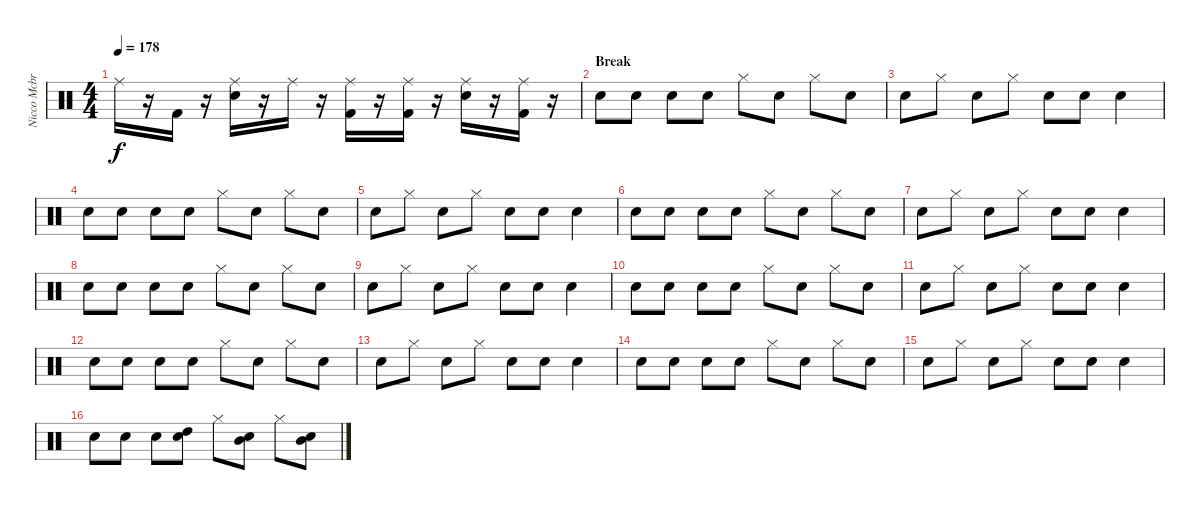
\track ("Nicco Mcbrian - Drums" "Nicco Mcbr") {instrument percussion}
\staff {score}
\articulation defaults
\ts (4 4)
\tempo 178
\clef neutral
\ks c "Ride (middle)".16{dy f}
r.16 "Kick (hit) 2".16 r.16 ("Ride (middle)" "Snare (hit) 2").16 r.16 "Ride (middle)".16 r.16 ("Ride (middle)" "Kick (hit) 2").16 r.16 ("Ride (middle)" "Kick (hit) 2").16 r.16 ("Ride (middle)" "Snare (hit) 2").16 r.16 ("Ride (middle)" "Kick (hit) 2").16 r.16 |
\section ("" "Break")
"Snare (hit) 2".8 "Snare (hit) 2".8 "Snare (hit) 2".8 "Snare (hit) 2".8 "Hi-Hat (closed)".8 "Snare (hit) 2".8 "Hi-Hat (closed)".8 "Snare (hit) 2".8 |
"Snare (hit) 2".8 "Hi-Hat (closed)".8 "Snare (hit) 2".8 "Hi-Hat (closed)".8 "Snare (hit) 2".8 "Snare (hit) 2".8 "Snare (hit) 2".4 |
"Snare (hit) 2".8 "Snare (hit) 2".8 "Snare (hit) 2".8 "Snare (hit) 2".8 "Hi-Hat (closed)".8 "Snare (hit) 2".8 "Hi-Hat (closed)".8 "Snare (hit) 2".8 |
"Snare (hit) 2".8 "Hi-Hat (closed)".8 "Snare (hit) 2".8 "Hi-Hat (closed)".8 "Snare (hit) 2".8 "Snare (hit) 2".8 "Snare (hit) 2".4 |
"Snare (hit) 2".8 "Snare (hit) 2".8 "Snare (hit) 2".8 "Snare (hit) 2".8 "Hi-Hat (closed)".8 "Snare (hit) 2".8 "Hi-Hat (closed)".8 "Snare (hit) 2".8 |
"Snare (hit) 2".8 "Hi-Hat (closed)".8 "Snare (hit) 2".8 "Hi-Hat (closed)".8 "Snare (hit) 2".8 "Snare (hit) 2".8 "Snare (hit) 2".4 |
"Snare (hit) 2".8 "Snare (hit) 2".8 "Snare (hit) 2".8 "Snare (hit) 2".8 "Hi-Hat (closed)".8 "Snare (hit) 2".8 "Hi-Hat (closed)".8 "Snare (hit) 2".8 |
"Snare (hit) 2".8 "Hi-Hat (closed)".8 "Snare (hit) 2".8 "Hi-Hat (closed)".8 "Snare (hit) 2".8 "Snare (hit) 2".8 "Snare (hit) 2".4 |
"Snare (hit) 2".8 "Snare (hit) 2".8 "Snare (hit) 2".8 "Snare (hit) 2".8 "Hi-Hat (closed)".8 "Snare (hit) 2".8 "Hi-Hat (closed)".8 "Snare (hit) 2".8 |
"Snare (hit) 2".8 "Hi-Hat (closed)".8 "Snare (hit) 2".8 "Hi-Hat (closed)".8 "Snare (hit) 2".8 "Snare (hit) 2".8 "Snare (hit) 2".4 |
"Snare (hit) 2".8 "Snare (hit) 2".8 "Snare (hit) 2".8 "Snare (hit) 2".8 "Hi-Hat (closed)".8 "Snare (hit) 2".8 "Hi-Hat (closed)".8 "Snare (hit) 2".8 |
"Snare (hit) 2".8 "Hi-Hat (closed)".8 "Snare (hit) 2".8 "Hi-Hat (closed)".8 "Snare (hit) 2".8 "Snare (hit) 2".8 "Snare (hit) 2".4 |
"Snare (hit) 2".8 "Snare (hit) 2".8 "Snare (hit) 2".8 "Snare (hit) 2".8 "Hi-Hat (closed)".8 "Snare (hit) 2".8 "Hi-Hat (closed)".8 "Snare (hit) 2".8 |
"Snare (hit) 2".8 "Hi-Hat (closed)".8 "Snare (hit) 2".8 "Hi-Hat (closed)".8 "Snare (hit) 2".8 "Snare (hit) 2".8 "Snare (hit) 2".4 |
"Snare (hit) 2".8 "Snare (hit) 2".8 "Snare (hit) 2".8 ("High Tom (hit)" "Snare (hit) 2").8 "Hi-Hat (closed)".8 ("Mid Tom (hit)" "Snare (hit) 2").8 "Hi-Hat (closed)".8 ("Mid Tom (hit)" "Snare (hit) 2").8
